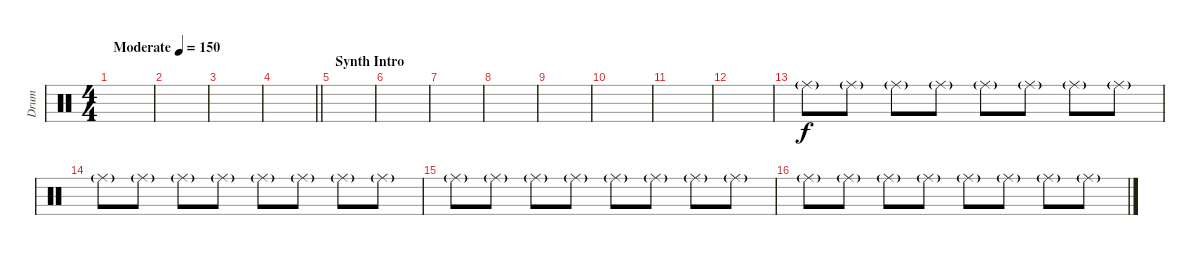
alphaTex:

\track ("Drum" "Drum") {instrument percussion}
\staff {score}
\articulation defaults
\ts (4 4)
\tempo (150 "Moderate")
\clef neutral
\ks c
|
|
|
\barLineRight lightlight
|
\section ("" "Synth Intro")
|
|
|
|
|
|
|
|
"Ride (middle)"{g}.8 "Ride (middle)"{g}.8 "Ride (middle)"{g}.8 "Ride (middle)"{g}.8 "Ride (middle)"{g}.8 "Ride (middle)"{g}.8 "Ride (middle)"{g}.8 "Ride (middle)"{g}.8 |
"Ride (middle)"{g}.8 "Ride (middle)"{g}.8 "Ride (middle)"{g}.8 "Ride (middle)"{g}.8 "Ride (middle)"{g}.8 "Ride (middle)"{g}.8 "Ride (middle)"{g}.8 "Ride (middle)"{g}.8 |
"Ride (middle)"{g}.8 "Ride (middle)"{g}.8 "Ride (middle)"{g}.8 "Ride (middle)"{g}.8 "Ride (middle)"{g}.8 "Ride (middle)"{g}.8 "Ride (middle)"{g}.8 "Ride (middle)"{g}.8 |
"Ride (middle)"{g}.8 "Ride (middle)"{g}.8 "Ride (middle)"{g}.8 "Ride (middle)"{g}.8 "Ride (middle)"{g}.8 "Ride (middle)"{g}.8 "Ride (middle)"{g}.8 "Ride (middle)"{g}.8
